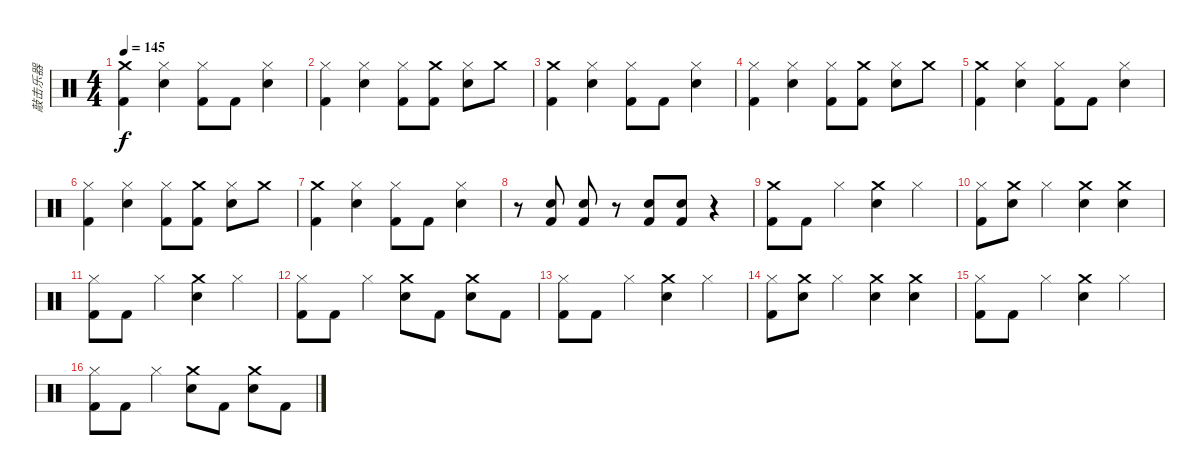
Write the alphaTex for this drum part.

\track ("敲击乐器" "敲击乐器") {instrument percussion}
\staff {score}
\articulation defaults
\ts (4 4)
\tempo 145
\clef neutral
\ks c
("Crash medium (hit)" "Kick (hit) 2").4{dy f} ("Hi-Hat (closed)" "Electric Snare (hit)").4 ("Hi-Hat (closed)" "Kick (hit) 2").8 "Kick (hit) 2".8 ("Hi-Hat (closed)" "Electric Snare (hit)").4 |
("Hi-Hat (closed)" "Kick (hit) 2").4 ("Hi-Hat (closed)" "Electric Snare (hit)").4 ("Hi-Hat (closed)" "Kick (hit) 2").8 ("Crash medium (hit)" "Kick (hit) 2").8 ("Hi-Hat (closed)" "Electric Snare (hit)").8 "Crash medium (hit)".8 |
("Crash medium (hit)" "Kick (hit) 2").4 ("Hi-Hat (closed)" "Electric Snare (hit)").4 ("Hi-Hat (closed)" "Kick (hit) 2").8 "Kick (hit) 2".8 ("Hi-Hat (closed)" "Electric Snare (hit)").4 |
("Hi-Hat (closed)" "Kick (hit) 2").4 ("Hi-Hat (closed)" "Electric Snare (hit)").4 ("Hi-Hat (closed)" "Kick (hit) 2").8 ("Crash medium (hit)" "Kick (hit) 2").8 ("Hi-Hat (closed)" "Electric Snare (hit)").8 "Crash medium (hit)".8 |
("Crash medium (hit)" "Kick (hit) 2").4 ("Hi-Hat (closed)" "Electric Snare (hit)").4 ("Hi-Hat (closed)" "Kick (hit) 2").8 "Kick (hit) 2".8 ("Hi-Hat (closed)" "Electric Snare (hit)").4 |
("Hi-Hat (closed)" "Kick (hit) 2").4 ("Hi-Hat (closed)" "Electric Snare (hit)").4 ("Hi-Hat (closed)" "Kick (hit) 2").8 ("Crash medium (hit)" "Kick (hit) 2").8 ("Hi-Hat (closed)" "Electric Snare (hit)").8 "Crash medium (hit)".8 |
("Crash medium (hit)" "Kick (hit) 2").4 ("Hi-Hat (closed)" "Electric Snare (hit)").4 ("Hi-Hat (closed)" "Kick (hit) 2").8 "Kick (hit) 2".8 ("Hi-Hat (closed)" "Electric Snare (hit)").4 |
r.8 ("Electric Snare (hit)" "Kick (hit) 2").8 ("Electric Snare (hit)" "Kick (hit) 2").8 r.8 ("Electric Snare (hit)" "Kick (hit) 2").8 ("Electric Snare (hit)" "Kick (hit) 2").8 r.4 |
("Crash medium (hit)" "Kick (hit) 2").8 "Kick (hit) 2".8 "Hi-Hat (closed)".4 ("Crash medium (hit)" "Electric Snare (hit)").4 "Hi-Hat (closed)".4 |
("Hi-Hat (closed)" "Kick (hit) 2").8 ("Crash medium (hit)" "Electric Snare (hit)").8 "Hi-Hat (closed)".4 ("Crash medium (hit)" "Electric Snare (hit)").4 ("Crash medium (hit)" "Electric Snare (hit)").4 |
("Hi-Hat (closed)" "Kick (hit) 2").8 "Kick (hit) 2".8 "Hi-Hat (closed)".4 ("Crash medium (hit)" "Electric Snare (hit)").4 "Hi-Hat (closed)".4 |
("Hi-Hat (closed)" "Kick (hit) 2").8 "Kick (hit) 2".8 "Hi-Hat (closed)".4 ("Crash medium (hit)" "Electric Snare (hit)").8 "Kick (hit) 2".8 ("Crash medium (hit)" "Electric Snare (hit)").8 "Kick (hit) 2".8 |
("Hi-Hat (closed)" "Kick (hit) 2").8 "Kick (hit) 2".8 "Hi-Hat (closed)".4 ("Crash medium (hit)" "Electric Snare (hit)").4 "Hi-Hat (closed)".4 |
("Hi-Hat (closed)" "Kick (hit) 2").8 ("Crash medium (hit)" "Electric Snare (hit)").8 "Hi-Hat (closed)".4 ("Crash medium (hit)" "Electric Snare (hit)").4 ("Crash medium (hit)" "Electric Snare (hit)").4 |
("Hi-Hat (closed)" "Kick (hit) 2").8 "Kick (hit) 2".8 "Hi-Hat (closed)".4 ("Crash medium (hit)" "Electric Snare (hit)").4 "Hi-Hat (closed)".4 |
("Hi-Hat (closed)" "Kick (hit) 2").8 "Kick (hit) 2".8 "Hi-Hat (closed)".4 ("Crash medium (hit)" "Electric Snare (hit)").8 "Kick (hit) 2".8 ("Crash medium (hit)" "Electric Snare (hit)").8 "Kick (hit) 2".8
